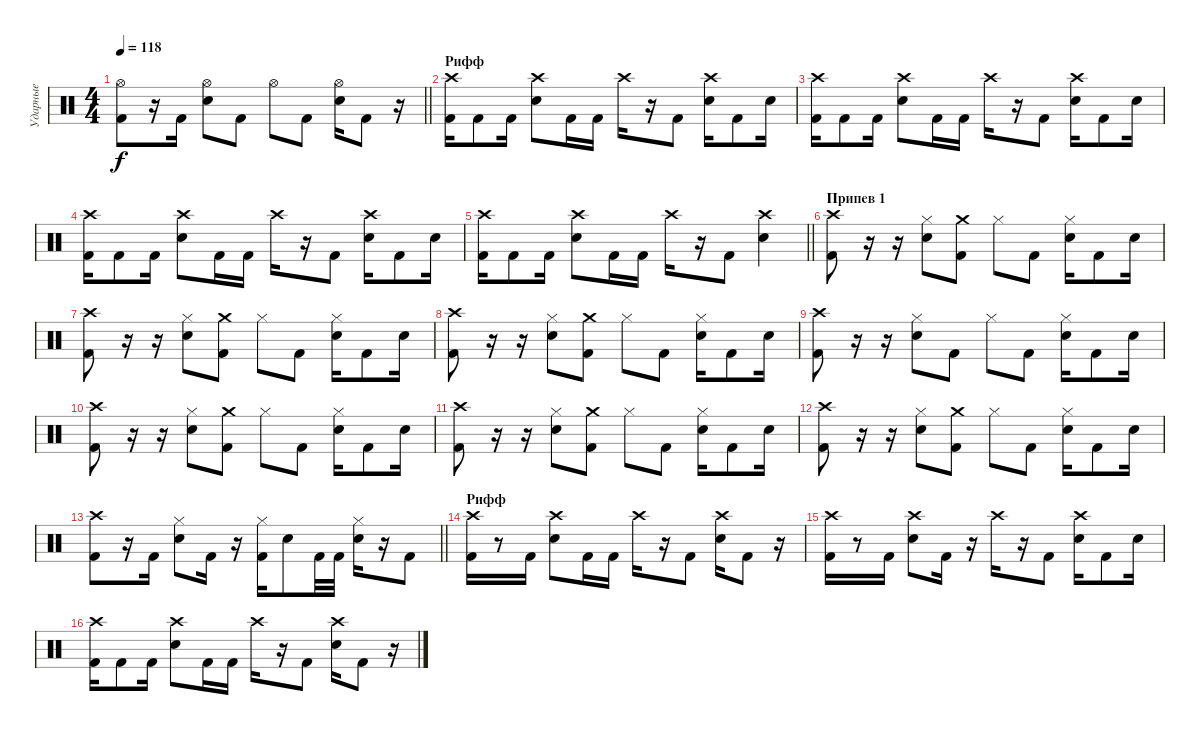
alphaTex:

\track ("Ударные" "Ударные") {instrument percussion}
\staff {score}
\articulation defaults
\ts (4 4)
\tempo 118
\clef neutral
\barLineRight lightlight
\ks c
("Hi-Hat (open)" "Kick (hit) 2").8{dy f} r.16 "Kick (hit) 2".16 ("Hi-Hat (open)" "Snare (hit) 2").8 "Kick (hit) 2".8 "Hi-Hat (open)".8 "Kick (hit) 2".8 ("Hi-Hat (open)" "Snare (hit) 2").16 "Kick (hit) 2".8 r.16 |
\section ("" "Рифф")
("Crash high (hit)" "Kick (hit) 2").16 "Kick (hit) 2".8 "Kick (hit) 2".16 ("Crash high (hit)" "Snare (hit) 2").8 "Kick (hit) 2".16 "Kick (hit) 2".16 "Crash high (hit)".16 r.16 "Kick (hit) 2".8 ("Crash high (hit)" "Snare (hit) 2").16 "Kick (hit) 2".8 "Snare (hit) 2".16 |
("Crash high (hit)" "Kick (hit) 2").16 "Kick (hit) 2".8 "Kick (hit) 2".16 ("Crash high (hit)" "Snare (hit) 2").8 "Kick (hit) 2".16 "Kick (hit) 2".16 "Crash high (hit)".16 r.16 "Kick (hit) 2".8 ("Crash high (hit)" "Snare (hit) 2").16 "Kick (hit) 2".8 "Snare (hit) 2".16 |
("Crash high (hit)" "Kick (hit) 2").16 "Kick (hit) 2".8 "Kick (hit) 2".16 ("Crash high (hit)" "Snare (hit) 2").8 "Kick (hit) 2".16 "Kick (hit) 2".16 "Crash high (hit)".16 r.16 "Kick (hit) 2".8 ("Crash high (hit)" "Snare (hit) 2").16 "Kick (hit) 2".8 "Snare (hit) 2".16 |
\barLineRight lightlight
("Crash high (hit)" "Kick (hit) 2").16 "Kick (hit) 2".8 "Kick (hit) 2".16 ("Crash high (hit)" "Snare (hit) 2").8 "Kick (hit) 2".16 "Kick (hit) 2".16 "Crash high (hit)".16 r.16 "Kick (hit) 2".8 ("Crash high (hit)" "Snare (hit) 2").4 |
\section ("" "Припев 1")
("Crash high (hit)" "Kick (hit) 2").8 r.16 r.16 ("Hi-Hat (closed)" "Snare (hit) 2").8 ("Crash medium (hit)" "Kick (hit) 2").8 "Hi-Hat (closed)".8 "Kick (hit) 2".8 ("Hi-Hat (closed)" "Snare (hit) 2").16 "Kick (hit) 2".8 "Snare (hit) 2".16 |
("Crash high (hit)" "Kick (hit) 2").8 r.16 r.16 ("Hi-Hat (closed)" "Snare (hit) 2").8 ("Crash medium (hit)" "Kick (hit) 2").8 "Hi-Hat (closed)".8 "Kick (hit) 2".8 ("Hi-Hat (closed)" "Snare (hit) 2").16 "Kick (hit) 2".8 "Snare (hit) 2".16 |
("Crash high (hit)" "Kick (hit) 2").8 r.16 r.16 ("Hi-Hat (closed)" "Snare (hit) 2").8 ("Crash medium (hit)" "Kick (hit) 2").8 "Hi-Hat (closed)".8 "Kick (hit) 2".8 ("Hi-Hat (closed)" "Snare (hit) 2").16 "Kick (hit) 2".8 "Snare (hit) 2".16 |
("Crash high (hit)" "Kick (hit) 2").8 r.16 r.16 ("Hi-Hat (closed)" "Snare (hit) 2").8 "Kick (hit) 2".8 "Hi-Hat (closed)".8 "Kick (hit) 2".8 ("Hi-Hat (closed)" "Snare (hit) 2").16 "Kick (hit) 2".8 "Snare (hit) 2".16 |
("Crash high (hit)" "Kick (hit) 2").8 r.16 r.16 ("Hi-Hat (closed)" "Snare (hit) 2").8 ("Crash medium (hit)" "Kick (hit) 2").8 "Hi-Hat (closed)".8 "Kick (hit) 2".8 ("Hi-Hat (closed)" "Snare (hit) 2").16 "Kick (hit) 2".8 "Snare (hit) 2".16 |
("Crash high (hit)" "Kick (hit) 2").8 r.16 r.16 ("Hi-Hat (closed)" "Snare (hit) 2").8 ("Crash medium (hit)" "Kick (hit) 2").8 "Hi-Hat (closed)".8 "Kick (hit) 2".8 ("Hi-Hat (closed)" "Snare (hit) 2").16 "Kick (hit) 2".8 "Snare (hit) 2".16 |
("Crash high (hit)" "Kick (hit) 2").8 r.16 r.16 ("Hi-Hat (closed)" "Snare (hit) 2").8 ("Crash medium (hit)" "Kick (hit) 2").8 "Hi-Hat (closed)".8 "Kick (hit) 2".8 ("Hi-Hat (closed)" "Snare (hit) 2").16 "Kick (hit) 2".8 "Snare (hit) 2".16 |
\barLineRight lightlight
("Crash high (hit)" "Kick (hit) 2").8 r.16 "Kick (hit) 2".16 ("Hi-Hat (closed)" "Snare (hit) 2").8 "Kick (hit) 2".16 r.16 ("Hi-Hat (closed)" "Kick (hit) 2").16 "Snare (hit) 2".8 "Kick (hit) 2".32 "Kick (hit) 2".32 ("Hi-Hat (closed)" "Snare (hit) 2").16 r.16 "Kick (hit) 2".8 |
\section ("" "Рифф")
("Crash high (hit)" "Kick (hit) 2").16 r.8 "Kick (hit) 2".16 ("Crash high (hit)" "Snare (hit) 2").8 "Kick (hit) 2".16 "Kick (hit) 2".16 "Crash high (hit)".16 r.16 "Kick (hit) 2".8 ("Crash high (hit)" "Snare (hit) 2").16 "Kick (hit) 2".8 r.16 |
("Crash high (hit)" "Kick (hit) 2").16 r.8 "Kick (hit) 2".16 ("Crash high (hit)" "Snare (hit) 2").8 "Kick (hit) 2".16 r.16 "Crash high (hit)".16 r.16 "Kick (hit) 2".8 ("Crash high (hit)" "Snare (hit) 2").16 "Kick (hit) 2".8 "Snare (hit) 2".16 |
("Crash high (hit)" "Kick (hit) 2").16 "Kick (hit) 2".8 "Kick (hit) 2".16 ("Crash high (hit)" "Snare (hit) 2").8 "Kick (hit) 2".16 "Kick (hit) 2".16 "Crash high (hit)".16 r.16 "Kick (hit) 2".8 ("Crash high (hit)" "Snare (hit) 2").16 "Kick (hit) 2".8 r.16
